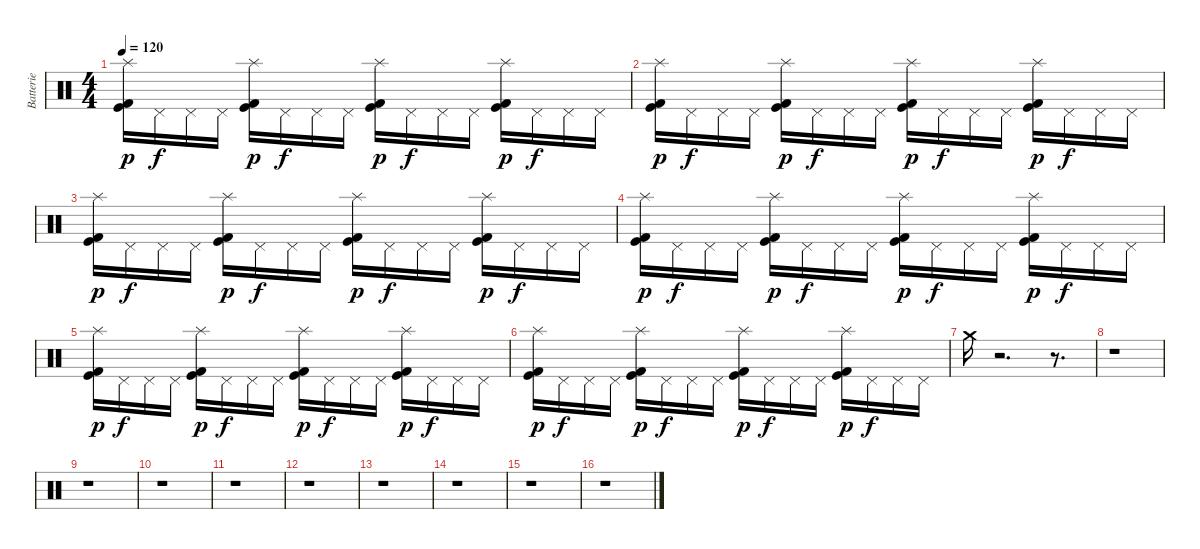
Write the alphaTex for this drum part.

\track ("Batterie" "Batterie") {instrument percussion}
\staff {score}
\articulation defaults
\ts (4 4)
\tempo 120
\clef neutral
\ks c
("Splash (hit)" "Kick (hit)" "Kick (hit) 2").16{dy p} "Pedal Hi-Hat (hit)".16{dy f} "Pedal Hi-Hat (hit)".16 "Pedal Hi-Hat (hit)".16 ("Splash (hit)" "Kick (hit)" "Kick (hit) 2").16{dy p} "Pedal Hi-Hat (hit)".16{dy f} "Pedal Hi-Hat (hit)".16 "Pedal Hi-Hat (hit)".16 ("Splash (hit)" "Kick (hit)" "Kick (hit) 2").16{dy p} "Pedal Hi-Hat (hit)".16{dy f} "Pedal Hi-Hat (hit)".16 "Pedal Hi-Hat (hit)".16 ("Splash (hit)" "Kick (hit)" "Kick (hit) 2").16{dy p} "Pedal Hi-Hat (hit)".16{dy f} "Pedal Hi-Hat (hit)".16 "Pedal Hi-Hat (hit)".16 |
("Splash (hit)" "Kick (hit)" "Kick (hit) 2").16{dy p} "Pedal Hi-Hat (hit)".16{dy f} "Pedal Hi-Hat (hit)".16 "Pedal Hi-Hat (hit)".16 ("Splash (hit)" "Kick (hit)" "Kick (hit) 2").16{dy p} "Pedal Hi-Hat (hit)".16{dy f} "Pedal Hi-Hat (hit)".16 "Pedal Hi-Hat (hit)".16 ("Splash (hit)" "Kick (hit)" "Kick (hit) 2").16{dy p} "Pedal Hi-Hat (hit)".16{dy f} "Pedal Hi-Hat (hit)".16 "Pedal Hi-Hat (hit)".16 ("Splash (hit)" "Kick (hit)" "Kick (hit) 2").16{dy p} "Pedal Hi-Hat (hit)".16{dy f} "Pedal Hi-Hat (hit)".16 "Pedal Hi-Hat (hit)".16 |
("Splash (hit)" "Kick (hit)" "Kick (hit) 2").16{dy p} "Pedal Hi-Hat (hit)".16{dy f} "Pedal Hi-Hat (hit)".16 "Pedal Hi-Hat (hit)".16 ("Splash (hit)" "Kick (hit)" "Kick (hit) 2").16{dy p} "Pedal Hi-Hat (hit)".16{dy f} "Pedal Hi-Hat (hit)".16 "Pedal Hi-Hat (hit)".16 ("Splash (hit)" "Kick (hit)" "Kick (hit) 2").16{dy p} "Pedal Hi-Hat (hit)".16{dy f} "Pedal Hi-Hat (hit)".16 "Pedal Hi-Hat (hit)".16 ("Splash (hit)" "Kick (hit)" "Kick (hit) 2").16{dy p} "Pedal Hi-Hat (hit)".16{dy f} "Pedal Hi-Hat (hit)".16 "Pedal Hi-Hat (hit)".16 |
("Splash (hit)" "Kick (hit)" "Kick (hit) 2").16{dy p} "Pedal Hi-Hat (hit)".16{dy f} "Pedal Hi-Hat (hit)".16 "Pedal Hi-Hat (hit)".16 ("Splash (hit)" "Kick (hit)" "Kick (hit) 2").16{dy p} "Pedal Hi-Hat (hit)".16{dy f} "Pedal Hi-Hat (hit)".16 "Pedal Hi-Hat (hit)".16 ("Splash (hit)" "Kick (hit)" "Kick (hit) 2").16{dy p} "Pedal Hi-Hat (hit)".16{dy f} "Pedal Hi-Hat (hit)".16 "Pedal Hi-Hat (hit)".16 ("Splash (hit)" "Kick (hit)" "Kick (hit) 2").16{dy p} "Pedal Hi-Hat (hit)".16{dy f} "Pedal Hi-Hat (hit)".16 "Pedal Hi-Hat (hit)".16 |
("Splash (hit)" "Kick (hit)" "Kick (hit) 2").16{dy p} "Pedal Hi-Hat (hit)".16{dy f} "Pedal Hi-Hat (hit)".16 "Pedal Hi-Hat (hit)".16 ("Splash (hit)" "Kick (hit)" "Kick (hit) 2").16{dy p} "Pedal Hi-Hat (hit)".16{dy f} "Pedal Hi-Hat (hit)".16 "Pedal Hi-Hat (hit)".16 ("Splash (hit)" "Kick (hit)" "Kick (hit) 2").16{dy p} "Pedal Hi-Hat (hit)".16{dy f} "Pedal Hi-Hat (hit)".16 "Pedal Hi-Hat (hit)".16 ("Splash (hit)" "Kick (hit)" "Kick (hit) 2").16{dy p} "Pedal Hi-Hat (hit)".16{dy f} "Pedal Hi-Hat (hit)".16 "Pedal Hi-Hat (hit)".16 |
("Splash (hit)" "Kick (hit)" "Kick (hit) 2").16{dy p} "Pedal Hi-Hat (hit)".16{dy f} "Pedal Hi-Hat (hit)".16 "Pedal Hi-Hat (hit)".16 ("Splash (hit)" "Kick (hit)" "Kick (hit) 2").16{dy p} "Pedal Hi-Hat (hit)".16{dy f} "Pedal Hi-Hat (hit)".16 "Pedal Hi-Hat (hit)".16 ("Splash (hit)" "Kick (hit)" "Kick (hit) 2").16{dy p} "Pedal Hi-Hat (hit)".16{dy f} "Pedal Hi-Hat (hit)".16 "Pedal Hi-Hat (hit)".16 ("Splash (hit)" "Kick (hit)" "Kick (hit) 2").16{dy p} "Pedal Hi-Hat (hit)".16{dy f} "Pedal Hi-Hat (hit)".16 "Pedal Hi-Hat (hit)".16 |
"Crash medium (hit)".16 r.2{d} r.8{d} |
r.1 |
r.1 |
r.1 |
r.1 |
r.1 |
r.1 |
r.1 |
r.1 |
r.1
